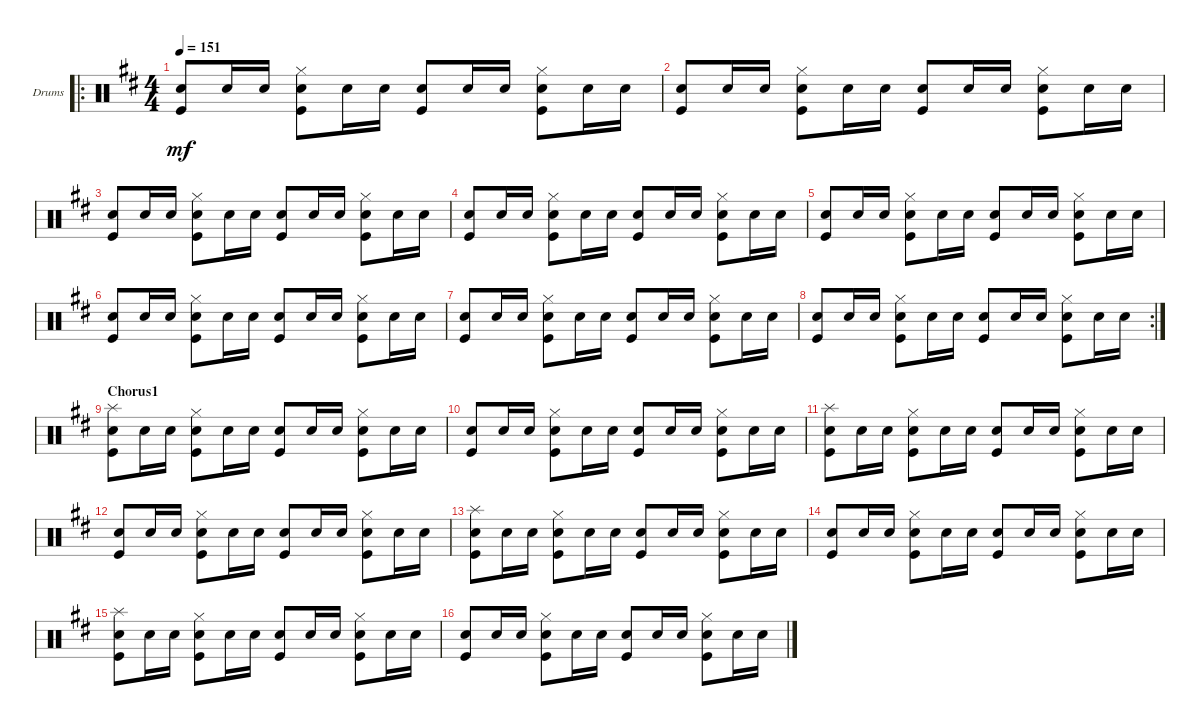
\defaultSystemsLayout 4
\bracketExtendMode groupsimilarinstruments
\firstSystemTrackNameOrientation horizontal
\otherSystemsTrackNameOrientation horizontal
\track ("Drumkit" "Drums") {instrument percussion}
\staff {score}
\articulation defaults
\ro
\ts (4 4)
\tempo 151
\clef neutral
\ks d
("Kick (hit)" "Snare (hit) 2").8{dy mf} "Snare (hit) 2".16 "Snare (hit) 2".16 ("Kick (hit)" "Hi-Hat (closed)" "Snare (hit) 2").8 "Snare (hit) 2".16 "Snare (hit) 2".16 ("Kick (hit)" "Snare (hit) 2").8 "Snare (hit) 2".16 "Snare (hit) 2".16 ("Kick (hit)" "Hi-Hat (closed)" "Snare (hit) 2").8 "Snare (hit) 2".16 "Snare (hit) 2".16 |
("Kick (hit)" "Snare (hit) 2").8 "Snare (hit) 2".16 "Snare (hit) 2".16 ("Kick (hit)" "Hi-Hat (closed)" "Snare (hit) 2").8 "Snare (hit) 2".16 "Snare (hit) 2".16 ("Kick (hit)" "Snare (hit) 2").8 "Snare (hit) 2".16 "Snare (hit) 2".16 ("Kick (hit)" "Hi-Hat (closed)" "Snare (hit) 2").8 "Snare (hit) 2".16 "Snare (hit) 2".16 |
("Kick (hit)" "Snare (hit) 2").8 "Snare (hit) 2".16 "Snare (hit) 2".16 ("Kick (hit)" "Hi-Hat (closed)" "Snare (hit) 2").8 "Snare (hit) 2".16 "Snare (hit) 2".16 ("Kick (hit)" "Snare (hit) 2").8 "Snare (hit) 2".16 "Snare (hit) 2".16 ("Kick (hit)" "Hi-Hat (closed)" "Snare (hit) 2").8 "Snare (hit) 2".16 "Snare (hit) 2".16 |
("Kick (hit)" "Snare (hit) 2").8 "Snare (hit) 2".16 "Snare (hit) 2".16 ("Kick (hit)" "Hi-Hat (closed)" "Snare (hit) 2").8 "Snare (hit) 2".16 "Snare (hit) 2".16 ("Kick (hit)" "Snare (hit) 2").8 "Snare (hit) 2".16 "Snare (hit) 2".16 ("Kick (hit)" "Hi-Hat (closed)" "Snare (hit) 2").8 "Snare (hit) 2".16 "Snare (hit) 2".16 |
("Kick (hit)" "Snare (hit) 2").8 "Snare (hit) 2".16 "Snare (hit) 2".16 ("Kick (hit)" "Hi-Hat (closed)" "Snare (hit) 2").8 "Snare (hit) 2".16 "Snare (hit) 2".16 ("Kick (hit)" "Snare (hit) 2").8 "Snare (hit) 2".16 "Snare (hit) 2".16 ("Kick (hit)" "Hi-Hat (closed)" "Snare (hit) 2").8 "Snare (hit) 2".16 "Snare (hit) 2".16 |
("Kick (hit)" "Snare (hit) 2").8 "Snare (hit) 2".16 "Snare (hit) 2".16 ("Kick (hit)" "Hi-Hat (closed)" "Snare (hit) 2").8 "Snare (hit) 2".16 "Snare (hit) 2".16 ("Kick (hit)" "Snare (hit) 2").8 "Snare (hit) 2".16 "Snare (hit) 2".16 ("Kick (hit)" "Hi-Hat (closed)" "Snare (hit) 2").8 "Snare (hit) 2".16 "Snare (hit) 2".16 |
("Kick (hit)" "Snare (hit) 2").8 "Snare (hit) 2".16 "Snare (hit) 2".16 ("Kick (hit)" "Hi-Hat (closed)" "Snare (hit) 2").8 "Snare (hit) 2".16 "Snare (hit) 2".16 ("Kick (hit)" "Snare (hit) 2").8 "Snare (hit) 2".16 "Snare (hit) 2".16 ("Kick (hit)" "Hi-Hat (closed)" "Snare (hit) 2").8 "Snare (hit) 2".16 "Snare (hit) 2".16 |
\rc 2
("Kick (hit)" "Snare (hit) 2").8 "Snare (hit) 2".16 "Snare (hit) 2".16 ("Kick (hit)" "Hi-Hat (closed)" "Snare (hit) 2").8 "Snare (hit) 2".16 "Snare (hit) 2".16 ("Kick (hit)" "Snare (hit) 2").8 "Snare (hit) 2".16 "Snare (hit) 2".16 ("Kick (hit)" "Hi-Hat (closed)" "Snare (hit) 2").8 "Snare (hit) 2".16 "Snare (hit) 2".16 |
\section ("" "Chorus1")
("Kick (hit)" "Snare (hit) 2" "Splash (hit)").8 "Snare (hit) 2".16 "Snare (hit) 2".16 ("Kick (hit)" "Hi-Hat (closed)" "Snare (hit) 2").8 "Snare (hit) 2".16 "Snare (hit) 2".16 ("Kick (hit)" "Snare (hit) 2").8 "Snare (hit) 2".16 "Snare (hit) 2".16 ("Kick (hit)" "Hi-Hat (closed)" "Snare (hit) 2").8 "Snare (hit) 2".16 "Snare (hit) 2".16 |
("Kick (hit)" "Snare (hit) 2").8 "Snare (hit) 2".16 "Snare (hit) 2".16 ("Kick (hit)" "Hi-Hat (closed)" "Snare (hit) 2").8 "Snare (hit) 2".16 "Snare (hit) 2".16 ("Kick (hit)" "Snare (hit) 2").8 "Snare (hit) 2".16 "Snare (hit) 2".16 ("Kick (hit)" "Hi-Hat (closed)" "Snare (hit) 2").8 "Snare (hit) 2".16 "Snare (hit) 2".16 |
("Kick (hit)" "Snare (hit) 2" "Splash (hit)").8 "Snare (hit) 2".16 "Snare (hit) 2".16 ("Kick (hit)" "Hi-Hat (closed)" "Snare (hit) 2").8 "Snare (hit) 2".16 "Snare (hit) 2".16 ("Kick (hit)" "Snare (hit) 2").8 "Snare (hit) 2".16 "Snare (hit) 2".16 ("Kick (hit)" "Hi-Hat (closed)" "Snare (hit) 2").8 "Snare (hit) 2".16 "Snare (hit) 2".16 |
("Kick (hit)" "Snare (hit) 2").8 "Snare (hit) 2".16 "Snare (hit) 2".16 ("Kick (hit)" "Hi-Hat (closed)" "Snare (hit) 2").8 "Snare (hit) 2".16 "Snare (hit) 2".16 ("Kick (hit)" "Snare (hit) 2").8 "Snare (hit) 2".16 "Snare (hit) 2".16 ("Kick (hit)" "Hi-Hat (closed)" "Snare (hit) 2").8 "Snare (hit) 2".16 "Snare (hit) 2".16 |
("Kick (hit)" "Snare (hit) 2" "Splash (hit)").8 "Snare (hit) 2".16 "Snare (hit) 2".16 ("Kick (hit)" "Hi-Hat (closed)" "Snare (hit) 2").8 "Snare (hit) 2".16 "Snare (hit) 2".16 ("Kick (hit)" "Snare (hit) 2").8 "Snare (hit) 2".16 "Snare (hit) 2".16 ("Kick (hit)" "Hi-Hat (closed)" "Snare (hit) 2").8 "Snare (hit) 2".16 "Snare (hit) 2".16 |
("Kick (hit)" "Snare (hit) 2").8 "Snare (hit) 2".16 "Snare (hit) 2".16 ("Kick (hit)" "Hi-Hat (closed)" "Snare (hit) 2").8 "Snare (hit) 2".16 "Snare (hit) 2".16 ("Kick (hit)" "Snare (hit) 2").8 "Snare (hit) 2".16 "Snare (hit) 2".16 ("Kick (hit)" "Hi-Hat (closed)" "Snare (hit) 2").8 "Snare (hit) 2".16 "Snare (hit) 2".16 |
("Kick (hit)" "Snare (hit) 2" "Splash (hit)").8 "Snare (hit) 2".16 "Snare (hit) 2".16 ("Kick (hit)" "Hi-Hat (closed)" "Snare (hit) 2").8 "Snare (hit) 2".16 "Snare (hit) 2".16 ("Kick (hit)" "Snare (hit) 2").8 "Snare (hit) 2".16 "Snare (hit) 2".16 ("Kick (hit)" "Hi-Hat (closed)" "Snare (hit) 2").8 "Snare (hit) 2".16 "Snare (hit) 2".16 |
("Kick (hit)" "Snare (hit) 2").8 "Snare (hit) 2".16 "Snare (hit) 2".16 ("Kick (hit)" "Hi-Hat (closed)" "Snare (hit) 2").8 "Snare (hit) 2".16 "Snare (hit) 2".16 ("Kick (hit)" "Snare (hit) 2").8 "Snare (hit) 2".16 "Snare (hit) 2".16 ("Kick (hit)" "Hi-Hat (closed)" "Snare (hit) 2").8 "Snare (hit) 2".16 "Snare (hit) 2".16
